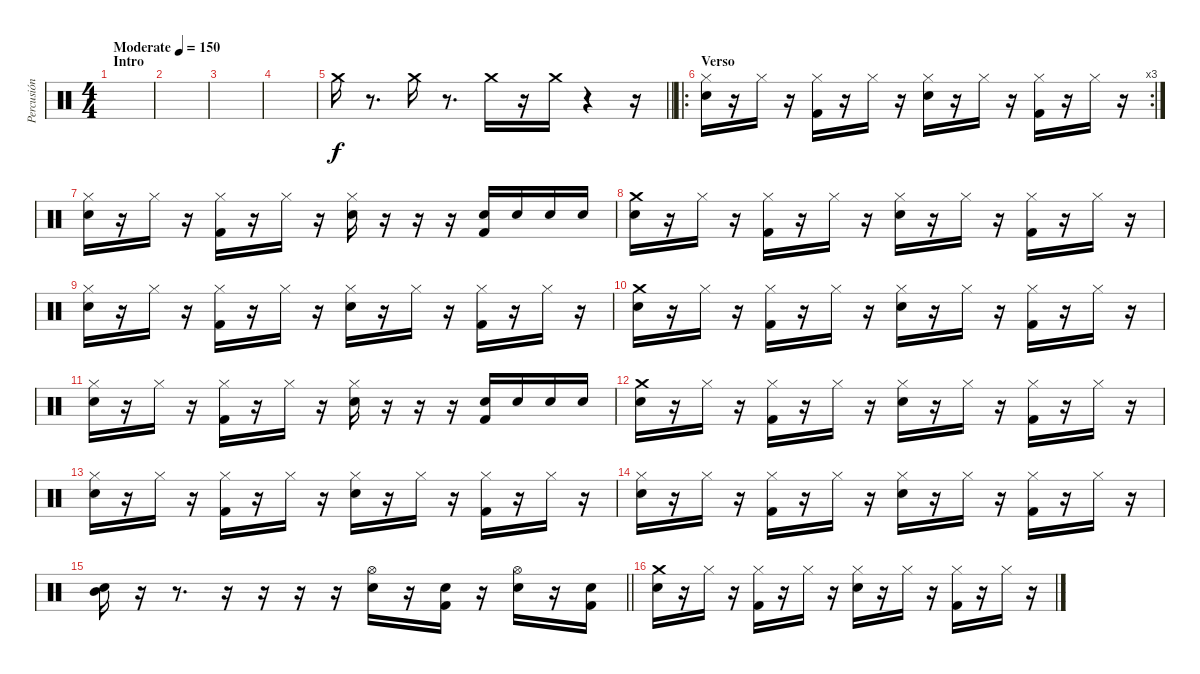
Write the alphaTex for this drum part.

\track ("Percusión" "Percusión") {instrument percussion}
\staff {score}
\articulation defaults
\ts (4 4)
\section ("" "Intro")
\tempo (150 "Moderate")
\clef neutral
\ks c
|
|
|
|
\barLineRight lightlight "Crash medium (hit)".16
r.8{d} "Crash medium (hit)".16 r.8{d} "Crash medium (hit)".16 r.16 "Crash medium (hit)".16 r.4 r.16 |
\ro
\rc 3
\section ("" "Verso")
("Hi-Hat (closed)" "Snare (hit) 2").16 r.16 "Hi-Hat (closed)".16 r.16 ("Hi-Hat (closed)" "Kick (hit) 2").16 r.16 "Hi-Hat (closed)".16 r.16 ("Hi-Hat (closed)" "Snare (hit) 2").16 r.16 "Hi-Hat (closed)".16 r.16 ("Hi-Hat (closed)" "Kick (hit) 2").16 r.16 "Hi-Hat (closed)".16 r.16 |
("Hi-Hat (closed)" "Snare (hit) 2").16 r.16 "Hi-Hat (closed)".16 r.16 ("Hi-Hat (closed)" "Kick (hit) 2").16 r.16 "Hi-Hat (closed)".16 r.16 ("Hi-Hat (closed)" "Snare (hit) 2").16 r.16 r.16 r.16 ("Snare (hit) 2" "Kick (hit) 2").16 "Snare (hit) 2".16 "Snare (hit) 2".16 "Snare (hit) 2".16 |
("Crash medium (hit)" "Snare (hit) 2").16 r.16 "Hi-Hat (closed)".16 r.16 ("Hi-Hat (closed)" "Kick (hit) 2").16 r.16 "Hi-Hat (closed)".16 r.16 ("Hi-Hat (closed)" "Snare (hit) 2").16 r.16 "Hi-Hat (closed)".16 r.16 ("Hi-Hat (closed)" "Kick (hit) 2").16 r.16 "Hi-Hat (closed)".16 r.16 |
("Hi-Hat (closed)" "Snare (hit) 2").16 r.16 "Hi-Hat (closed)".16 r.16 ("Hi-Hat (closed)" "Kick (hit) 2").16 r.16 "Hi-Hat (closed)".16 r.16 ("Hi-Hat (closed)" "Snare (hit) 2").16 r.16 "Hi-Hat (closed)".16 r.16 ("Hi-Hat (closed)" "Kick (hit) 2").16 r.16 "Hi-Hat (closed)".16 r.16 |
("Crash medium (hit)" "Snare (hit) 2").16 r.16 "Hi-Hat (closed)".16 r.16 ("Hi-Hat (closed)" "Kick (hit) 2").16 r.16 "Hi-Hat (closed)".16 r.16 ("Hi-Hat (closed)" "Snare (hit) 2").16 r.16 "Hi-Hat (closed)".16 r.16 ("Hi-Hat (closed)" "Kick (hit) 2").16 r.16 "Hi-Hat (closed)".16 r.16 |
("Hi-Hat (closed)" "Snare (hit) 2").16 r.16 "Hi-Hat (closed)".16 r.16 ("Hi-Hat (closed)" "Kick (hit) 2").16 r.16 "Hi-Hat (closed)".16 r.16 ("Hi-Hat (closed)" "Snare (hit) 2").16 r.16 r.16 r.16 ("Snare (hit) 2" "Kick (hit) 2").16 "Snare (hit) 2".16 "Snare (hit) 2".16 "Snare (hit) 2".16 |
("Crash medium (hit)" "Snare (hit) 2").16 r.16 "Hi-Hat (closed)".16 r.16 ("Hi-Hat (closed)" "Kick (hit) 2").16 r.16 "Hi-Hat (closed)".16 r.16 ("Hi-Hat (closed)" "Snare (hit) 2").16 r.16 "Hi-Hat (closed)".16 r.16 ("Hi-Hat (closed)" "Kick (hit) 2").16 r.16 "Hi-Hat (closed)".16 r.16 |
("Hi-Hat (closed)" "Snare (hit) 2").16 r.16 "Hi-Hat (closed)".16 r.16 ("Hi-Hat (closed)" "Kick (hit) 2").16 r.16 "Hi-Hat (closed)".16 r.16 ("Hi-Hat (closed)" "Snare (hit) 2").16 r.16 "Hi-Hat (closed)".16 r.16 ("Hi-Hat (closed)" "Kick (hit) 2").16 r.16 "Hi-Hat (closed)".16 r.16 |
("Hi-Hat (closed)" "Snare (hit) 2").16 r.16 "Hi-Hat (closed)".16 r.16 ("Hi-Hat (closed)" "Kick (hit) 2").16 r.16 "Hi-Hat (closed)".16 r.16 ("Hi-Hat (closed)" "Snare (hit) 2").16 r.16 "Hi-Hat (closed)".16 r.16 ("Hi-Hat (closed)" "Kick (hit) 2").16 r.16 "Hi-Hat (closed)".16 r.16 |
\barLineRight lightlight
("Mid Tom (hit)" "Snare (hit) 2").16 r.16 r.8{d} r.16 r.16 r.16 r.16 ("Hi-Hat (open)" "Snare (hit) 2").16 r.16 ("Snare (hit) 2" "Kick (hit) 2").16 r.16 ("Hi-Hat (open)" "Snare (hit) 2").16 r.16 ("Snare (hit) 2" "Kick (hit) 2").16 |
\section ("" "")
("Crash medium (hit)" "Snare (hit) 2").16 r.16 "Hi-Hat (closed)".16 r.16 ("Hi-Hat (closed)" "Kick (hit) 2").16 r.16 "Hi-Hat (closed)".16 r.16 ("Hi-Hat (closed)" "Snare (hit) 2").16 r.16 "Hi-Hat (closed)".16 r.16 ("Hi-Hat (closed)" "Kick (hit) 2").16 r.16 "Hi-Hat (closed)".16 r.16
